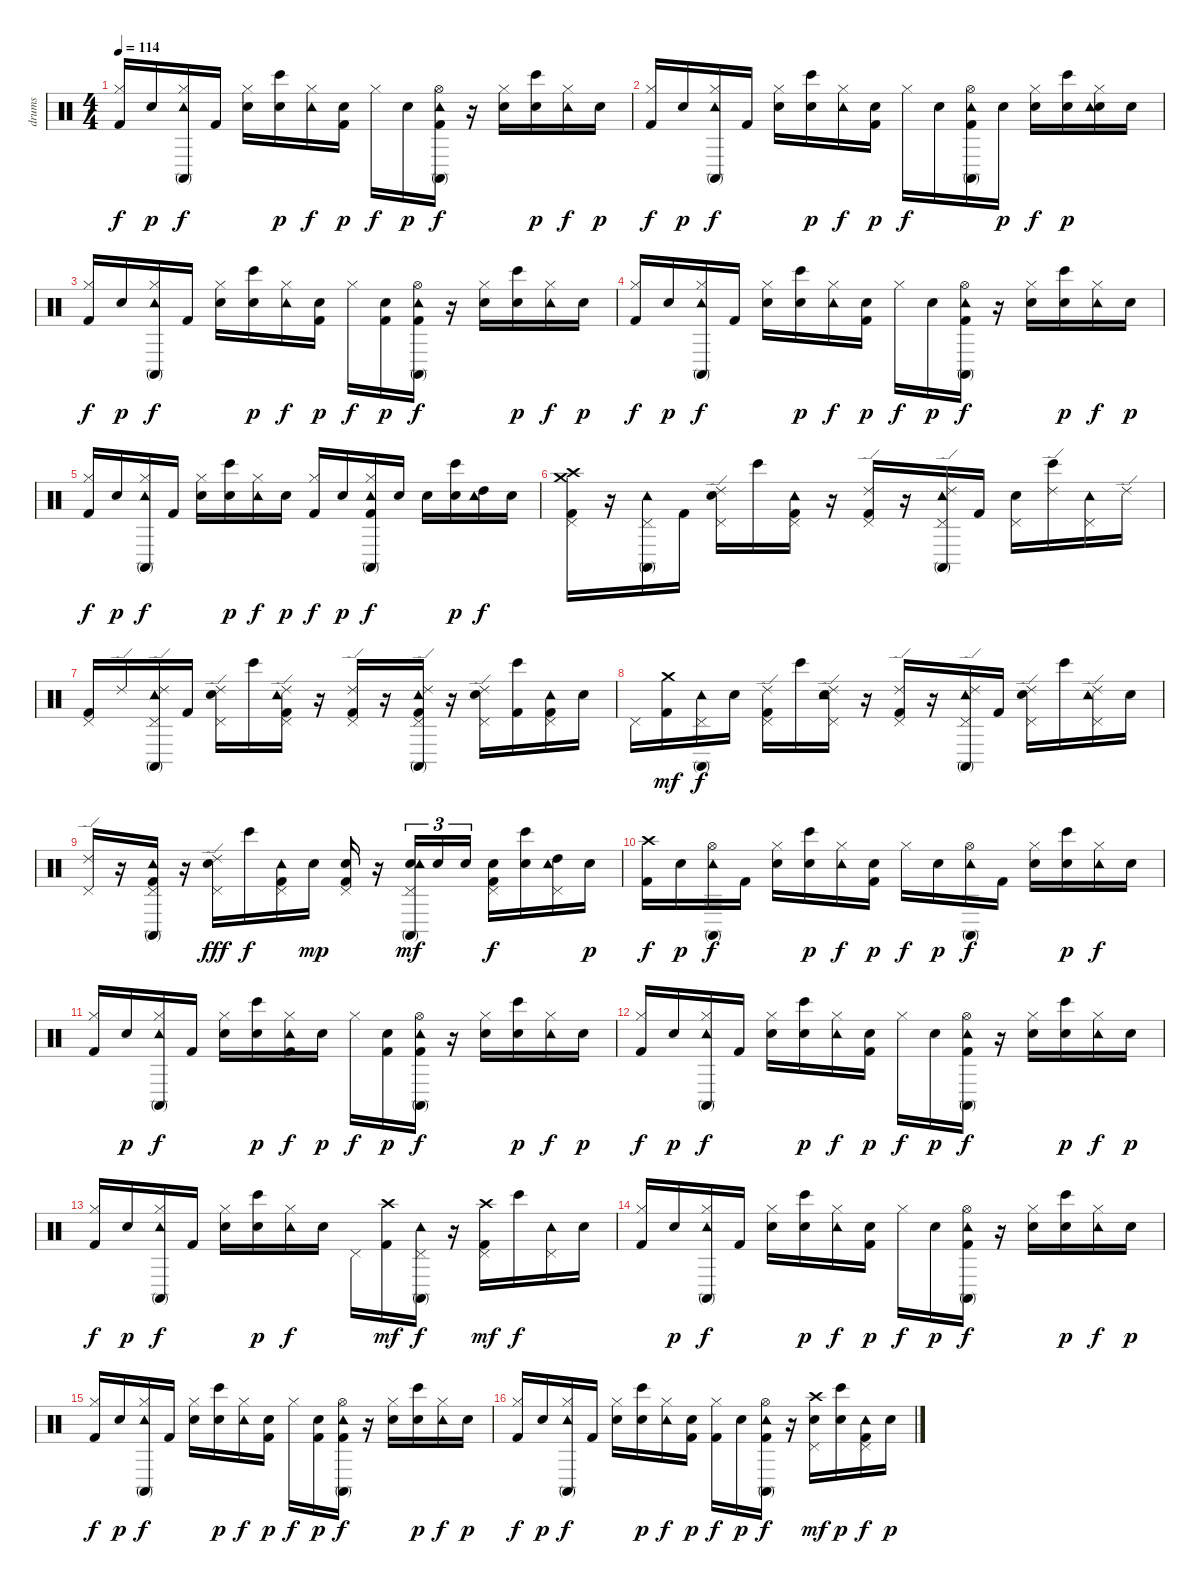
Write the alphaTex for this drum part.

\track ("drums" "drums") {instrument percussion}
\staff {score}
\articulation defaults
\ts (4 4)
\tempo 114
\clef neutral
\ks c
("Hi-Hat (closed)" "Kick (hit) 2").16{dy f} "Electric Snare (hit)".16{dy p} ("Hi-Hat (closed)" "Tambourine (hit)" "Conga high (mute)").16{dy f} "Kick (hit) 2".16 ("Electric Snare (hit)" "Hi-Hat (closed)").16 ("Electric Snare (hit)" "Bongo High (hit)").16{dy p} ("Hi-Hat (closed)" "Tambourine (hit)").16{dy f} ("Electric Snare (hit)" "Kick (hit) 2").16{dy p} "Hi-Hat (closed)".16{dy f} "Electric Snare (hit)".16{dy p} ("Kick (hit) 2" "Hi-Hat (open)" "Tambourine (hit)" "Conga high (mute)").16{dy f} r.16 ("Electric Snare (hit)" "Hi-Hat (closed)").16 ("Electric Snare (hit)" "Bongo High (hit)").16{dy p} ("Hi-Hat (closed)" "Tambourine (hit)").16{dy f} "Electric Snare (hit)".16{dy p} |
("Hi-Hat (closed)" "Kick (hit) 2").16{dy f} "Electric Snare (hit)".16{dy p} ("Hi-Hat (closed)" "Tambourine (hit)" "Conga high (mute)").16{dy f} "Kick (hit) 2".16 ("Electric Snare (hit)" "Hi-Hat (closed)").16 ("Electric Snare (hit)" "Bongo High (hit)").16{dy p} ("Hi-Hat (closed)" "Tambourine (hit)").16{dy f} ("Electric Snare (hit)" "Kick (hit) 2").16{dy p} "Hi-Hat (closed)".16{dy f} "Electric Snare (hit)".16 ("Kick (hit) 2" "Hi-Hat (open)" "Tambourine (hit)" "Conga high (mute)").16 "Electric Snare (hit)".16{dy p} ("Electric Snare (hit)" "Hi-Hat (closed)").16{dy f} ("Electric Snare (hit)" "Bongo High (hit)").16{dy p} ("Electric Snare (hit)" "Hi-Hat (closed)" "Tambourine (hit)").16 "Electric Snare (hit)".16 |
("Kick (hit) 2" "Hi-Hat (closed)").16{dy f} "Electric Snare (hit)".16{dy p} ("Hi-Hat (closed)" "Tambourine (hit)" "Conga high (mute)").16{dy f} "Kick (hit) 2".16 ("Electric Snare (hit)" "Hi-Hat (closed)").16 ("Electric Snare (hit)" "Bongo High (hit)").16{dy p} ("Hi-Hat (closed)" "Tambourine (hit)").16{dy f} ("Electric Snare (hit)" "Kick (hit) 2").16{dy p} "Hi-Hat (closed)".16{dy f} ("Electric Snare (hit)" "Kick (hit) 2").16{dy p} ("Kick (hit) 2" "Hi-Hat (open)" "Tambourine (hit)" "Conga high (mute)").16{dy f} r.16 ("Electric Snare (hit)" "Hi-Hat (closed)").16 ("Electric Snare (hit)" "Bongo High (hit)").16{dy p} ("Hi-Hat (closed)" "Tambourine (hit)").16{dy f} "Electric Snare (hit)".16{dy p} |
("Hi-Hat (closed)" "Kick (hit) 2").16{dy f} "Electric Snare (hit)".16{dy p} ("Hi-Hat (closed)" "Tambourine (hit)" "Conga high (mute)").16{dy f} "Kick (hit) 2".16 ("Electric Snare (hit)" "Hi-Hat (closed)").16 ("Electric Snare (hit)" "Bongo High (hit)").16{dy p} ("Hi-Hat (closed)" "Tambourine (hit)").16{dy f} ("Electric Snare (hit)" "Kick (hit) 2").16{dy p} "Hi-Hat (closed)".16{dy f} "Electric Snare (hit)".16{dy p} ("Kick (hit) 2" "Hi-Hat (open)" "Tambourine (hit)" "Conga high (mute)").16{dy f} r.16 ("Electric Snare (hit)" "Hi-Hat (closed)").16 ("Electric Snare (hit)" "Bongo High (hit)").16{dy p} ("Hi-Hat (closed)" "Tambourine (hit)").16{dy f} "Electric Snare (hit)".16{dy p} |
("Hi-Hat (closed)" "Kick (hit) 2").16{dy f} "Electric Snare (hit)".16{dy p} ("Hi-Hat (closed)" "Tambourine (hit)" "Conga high (mute)").16{dy f} "Kick (hit) 2".16 ("Electric Snare (hit)" "Hi-Hat (closed)").16 ("Electric Snare (hit)" "Bongo High (hit)").16{dy p} ("Hi-Hat (closed)" "Tambourine (hit)").16{dy f} "Electric Snare (hit)".16{dy p} ("Kick (hit) 2" "Hi-Hat (closed)").16{dy f} "Electric Snare (hit)".16{dy p} ("Kick (hit) 2" "Hi-Hat (closed)" "Tambourine (hit)" "Conga high (mute)").16{dy f} "Electric Snare (hit)".16 "Electric Snare (hit)".16 ("Electric Snare (hit)" "Bongo High (hit)").16{dy p} ("High Tom (hit)" "Tambourine (hit)").16{dy f} "Electric Snare (hit)".16 |
("Pedal Hi-Hat (hit)" "Crash medium (hit)" "Crash high (hit)" "Kick (hit) 2").16 r.16 ("Pedal Hi-Hat (hit)" "Tambourine (hit)" "Conga high (mute)").16 "Kick (hit) 2".16 ("Pedal Hi-Hat (hit)" "Ride (edge) 2" "Electric Snare (hit)").16 "Bongo High (hit)".16 ("Pedal Hi-Hat (hit)" "Kick (hit) 2" "Tambourine (hit)").16 r.16 ("Pedal Hi-Hat (hit)" "Kick (hit) 2" "Ride (edge) 2").16 r.16 ("Pedal Hi-Hat (hit)" "Ride (edge) 2" "Tambourine (hit)" "Conga high (mute)").16 "Kick (hit) 2".16 ("Pedal Hi-Hat (hit)" "Electric Snare (hit)").16 ("Ride (edge) 2" "Bongo High (hit)").16 ("Pedal Hi-Hat (hit)" "Tambourine (hit)").16 "Ride (edge) 2".16 |
("Pedal Hi-Hat (hit)" "Kick (hit) 2").16 "Ride (edge) 2".16 ("Pedal Hi-Hat (hit)" "Tambourine (hit)" "Conga high (mute)" "Ride (edge) 2").16 "Kick (hit) 2".16 ("Pedal Hi-Hat (hit)" "Ride (edge) 2" "Electric Snare (hit)").16 "Bongo High (hit)".16 ("Pedal Hi-Hat (hit)" "Tambourine (hit)" "Kick (hit) 2" "Ride (edge) 2").16 r.16 ("Pedal Hi-Hat (hit)" "Ride (edge) 2" "Kick (hit) 2").16 r.16 ("Pedal Hi-Hat (hit)" "Tambourine (hit)" "Conga high (mute)" "Kick (hit) 2" "Ride (edge) 2").16 r.16 ("Pedal Hi-Hat (hit)" "Ride (edge) 2" "Electric Snare (hit)").16 ("Bongo High (hit)" "Kick (hit) 2").16 ("Pedal Hi-Hat (hit)" "Tambourine (hit)" "Kick (hit) 2").16 "Electric Snare (hit)".16 |
"Pedal Hi-Hat (hit)".16 ("Crash medium (hit)" "Kick (hit) 2").16{dy mf} ("Pedal Hi-Hat (hit)" "Tambourine (hit)" "Conga high (mute)").16{dy f} "Electric Snare (hit)".16 ("Pedal Hi-Hat (hit)" "Ride (edge) 2" "Kick (hit) 2").16 "Bongo High (hit)".16 ("Pedal Hi-Hat (hit)" "Tambourine (hit)" "Electric Snare (hit)" "Ride (edge) 2").16 r.16 ("Pedal Hi-Hat (hit)" "Ride (edge) 2" "Kick (hit) 2").16 r.16 ("Pedal Hi-Hat (hit)" "Tambourine (hit)" "Conga high (mute)" "Ride (edge) 2").16 "Kick (hit) 2".16 ("Pedal Hi-Hat (hit)" "Ride (edge) 2" "Electric Snare (hit)").16 "Bongo High (hit)".16 ("Pedal Hi-Hat (hit)" "Tambourine (hit)" "Ride (edge) 2").16 "Electric Snare (hit)".16 |
("Pedal Hi-Hat (hit)" "Ride (edge) 2").16 r.16 ("Pedal Hi-Hat (hit)" "Kick (hit) 2" "Tambourine (hit)" "Conga high (mute)").16 r.16 ("Pedal Hi-Hat (hit)" "Ride (edge) 2" "Electric Snare (hit)").16{dy fff} "Bongo High (hit)".16{dy f} ("Pedal Hi-Hat (hit)" "Kick (hit) 2" "Tambourine (hit)").16 "Electric Snare (hit)".16{dy mp} ("Pedal Hi-Hat (hit)" "Kick (hit) 2" "Electric Snare (hit)").16 r.16 ("Pedal Hi-Hat (hit)" "Electric Snare (hit)" "Tambourine (hit)" "Conga high (mute)").16{tu (3 2) dy mf} "Electric Snare (hit)".16{tu (3 2)} "Electric Snare (hit)".16{tu (3 2)} ("Pedal Hi-Hat (hit)" "Kick (hit) 2" "Electric Snare (hit)").16{dy f} ("Electric Snare (hit)" "Bongo High (hit)").16 ("Pedal Hi-Hat (hit)" "High Tom (hit)" "Tambourine (hit)").16 "Electric Snare (hit)".16{dy p} |
("Kick (hit) 2" "Crash high (hit)").16{dy f} "Electric Snare (hit)".16{dy p} ("Hi-Hat (open)" "Tambourine (hit)" "Conga high (mute)").16{dy f} "Kick (hit) 2".16 ("Electric Snare (hit)" "Hi-Hat (closed)").16 ("Electric Snare (hit)" "Bongo High (hit)").16{dy p} ("Hi-Hat (closed)" "Tambourine (hit)").16{dy f} ("Electric Snare (hit)" "Kick (hit) 2").16{dy p} "Hi-Hat (closed)".16{dy f} "Electric Snare (hit)".16{dy p} ("Hi-Hat (open)" "Tambourine (hit)" "Conga high (mute)").16{dy f} "Kick (hit) 2".16 ("Hi-Hat (closed)" "Electric Snare (hit)").16 ("Electric Snare (hit)" "Bongo High (hit)").16{dy p} ("Tambourine (hit)" "Hi-Hat (closed)").16{dy f} "Electric Snare (hit)".16 |
("Hi-Hat (closed)" "Kick (hit) 2").16 "Electric Snare (hit)".16{dy p} ("Hi-Hat (closed)" "Tambourine (hit)" "Conga high (mute)").16{dy f} "Kick (hit) 2".16 ("Electric Snare (hit)" "Hi-Hat (closed)").16 ("Electric Snare (hit)" "Bongo High (hit)").16{dy p} ("Kick (hit) 2" "Hi-Hat (closed)" "Tambourine (hit)").16{dy f} "Electric Snare (hit)".16{dy p} "Hi-Hat (closed)".16{dy f} ("Electric Snare (hit)" "Kick (hit) 2").16{dy p} ("Kick (hit) 2" "Hi-Hat (open)" "Tambourine (hit)" "Conga high (mute)").16{dy f} r.16 ("Electric Snare (hit)" "Hi-Hat (closed)").16 ("Electric Snare (hit)" "Bongo High (hit)").16{dy p} ("Hi-Hat (closed)" "Tambourine (hit)").16{dy f} "Electric Snare (hit)".16{dy p} |
("Hi-Hat (closed)" "Kick (hit) 2").16{dy f} "Electric Snare (hit)".16{dy p} ("Hi-Hat (closed)" "Tambourine (hit)" "Conga high (mute)").16{dy f} "Kick (hit) 2".16 ("Electric Snare (hit)" "Hi-Hat (closed)").16 ("Electric Snare (hit)" "Bongo High (hit)").16{dy p} ("Hi-Hat (closed)" "Tambourine (hit)").16{dy f} ("Electric Snare (hit)" "Kick (hit) 2").16{dy p} "Hi-Hat (closed)".16{dy f} "Electric Snare (hit)".16{dy p} ("Kick (hit) 2" "Hi-Hat (open)" "Tambourine (hit)" "Conga high (mute)").16{dy f} r.16 ("Electric Snare (hit)" "Hi-Hat (closed)").16 ("Electric Snare (hit)" "Bongo High (hit)").16{dy p} ("Hi-Hat (closed)" "Tambourine (hit)").16{dy f} "Electric Snare (hit)".16{dy p} |
("Hi-Hat (closed)" "Kick (hit) 2").16{dy f} "Electric Snare (hit)".16{dy p} ("Hi-Hat (closed)" "Tambourine (hit)" "Conga high (mute)").16{dy f} "Kick (hit) 2".16 ("Electric Snare (hit)" "Hi-Hat (closed)").16 ("Electric Snare (hit)" "Bongo High (hit)").16{dy p} ("Hi-Hat (closed)" "Tambourine (hit)").16{dy f} "Electric Snare (hit)".16 "Pedal Hi-Hat (hit)".16 ("Crash high (hit)" "Kick (hit) 2").16{dy mf} ("Pedal Hi-Hat (hit)" "Tambourine (hit)" "Conga high (mute)").16{dy f} r.16 ("Crash high (hit)" "Kick (hit) 2" "Pedal Hi-Hat (hit)").16{dy mf} "Bongo High (hit)".16{dy f} ("Pedal Hi-Hat (hit)" "Tambourine (hit)").16 "Electric Snare (hit)".16 |
("Kick (hit) 2" "Hi-Hat (closed)").16 "Electric Snare (hit)".16{dy p} ("Hi-Hat (closed)" "Tambourine (hit)" "Conga high (mute)").16{dy f} "Kick (hit) 2".16 ("Electric Snare (hit)" "Hi-Hat (closed)").16 ("Electric Snare (hit)" "Bongo High (hit)").16{dy p} ("Hi-Hat (closed)" "Tambourine (hit)").16{dy f} ("Electric Snare (hit)" "Kick (hit) 2").16{dy p} "Hi-Hat (closed)".16{dy f} "Electric Snare (hit)".16{dy p} ("Kick (hit) 2" "Hi-Hat (open)" "Tambourine (hit)" "Conga high (mute)").16{dy f} r.16 ("Electric Snare (hit)" "Hi-Hat (closed)").16 ("Electric Snare (hit)" "Bongo High (hit)").16{dy p} ("Hi-Hat (closed)" "Tambourine (hit)").16{dy f} "Electric Snare (hit)".16{dy p} |
("Hi-Hat (closed)" "Kick (hit) 2").16{dy f} "Electric Snare (hit)".16{dy p} ("Hi-Hat (closed)" "Tambourine (hit)" "Conga high (mute)").16{dy f} "Kick (hit) 2".16 ("Electric Snare (hit)" "Hi-Hat (closed)").16 ("Electric Snare (hit)" "Bongo High (hit)").16{dy p} ("Hi-Hat (closed)" "Tambourine (hit)").16{dy f} ("Electric Snare (hit)" "Kick (hit) 2").16{dy p} "Hi-Hat (closed)".16{dy f} ("Kick (hit) 2" "Electric Snare (hit)").16{dy p} ("Kick (hit) 2" "Hi-Hat (open)" "Tambourine (hit)" "Conga high (mute)").16{dy f} r.16 ("Electric Snare (hit)" "Hi-Hat (closed)").16 ("Electric Snare (hit)" "Bongo High (hit)").16{dy p} ("Hi-Hat (closed)" "Tambourine (hit)").16{dy f} "Electric Snare (hit)".16{dy p} |
("Hi-Hat (closed)" "Kick (hit) 2").16{dy f} "Electric Snare (hit)".16{dy p} ("Hi-Hat (closed)" "Tambourine (hit)" "Conga high (mute)").16{dy f} "Kick (hit) 2".16 ("Electric Snare (hit)" "Hi-Hat (closed)").16 ("Electric Snare (hit)" "Bongo High (hit)").16{dy p} ("Hi-Hat (closed)" "Tambourine (hit)").16{dy f} ("Electric Snare (hit)" "Kick (hit) 2").16{dy p} ("Kick (hit) 2" "Hi-Hat (closed)").16{dy f} "Electric Snare (hit)".16{dy p} ("Kick (hit) 2" "Hi-Hat (open)" "Tambourine (hit)" "Conga high (mute)").16{dy f} r.16 ("Pedal Hi-Hat (hit)" "Crash high (hit)" "Electric Snare (hit)").16{dy mf} ("Electric Snare (hit)" "Bongo High (hit)").16{dy p} ("Pedal Hi-Hat (hit)" "Kick (hit) 2" "Tambourine (hit)").16{dy f} "Electric Snare (hit)".16{dy p}
